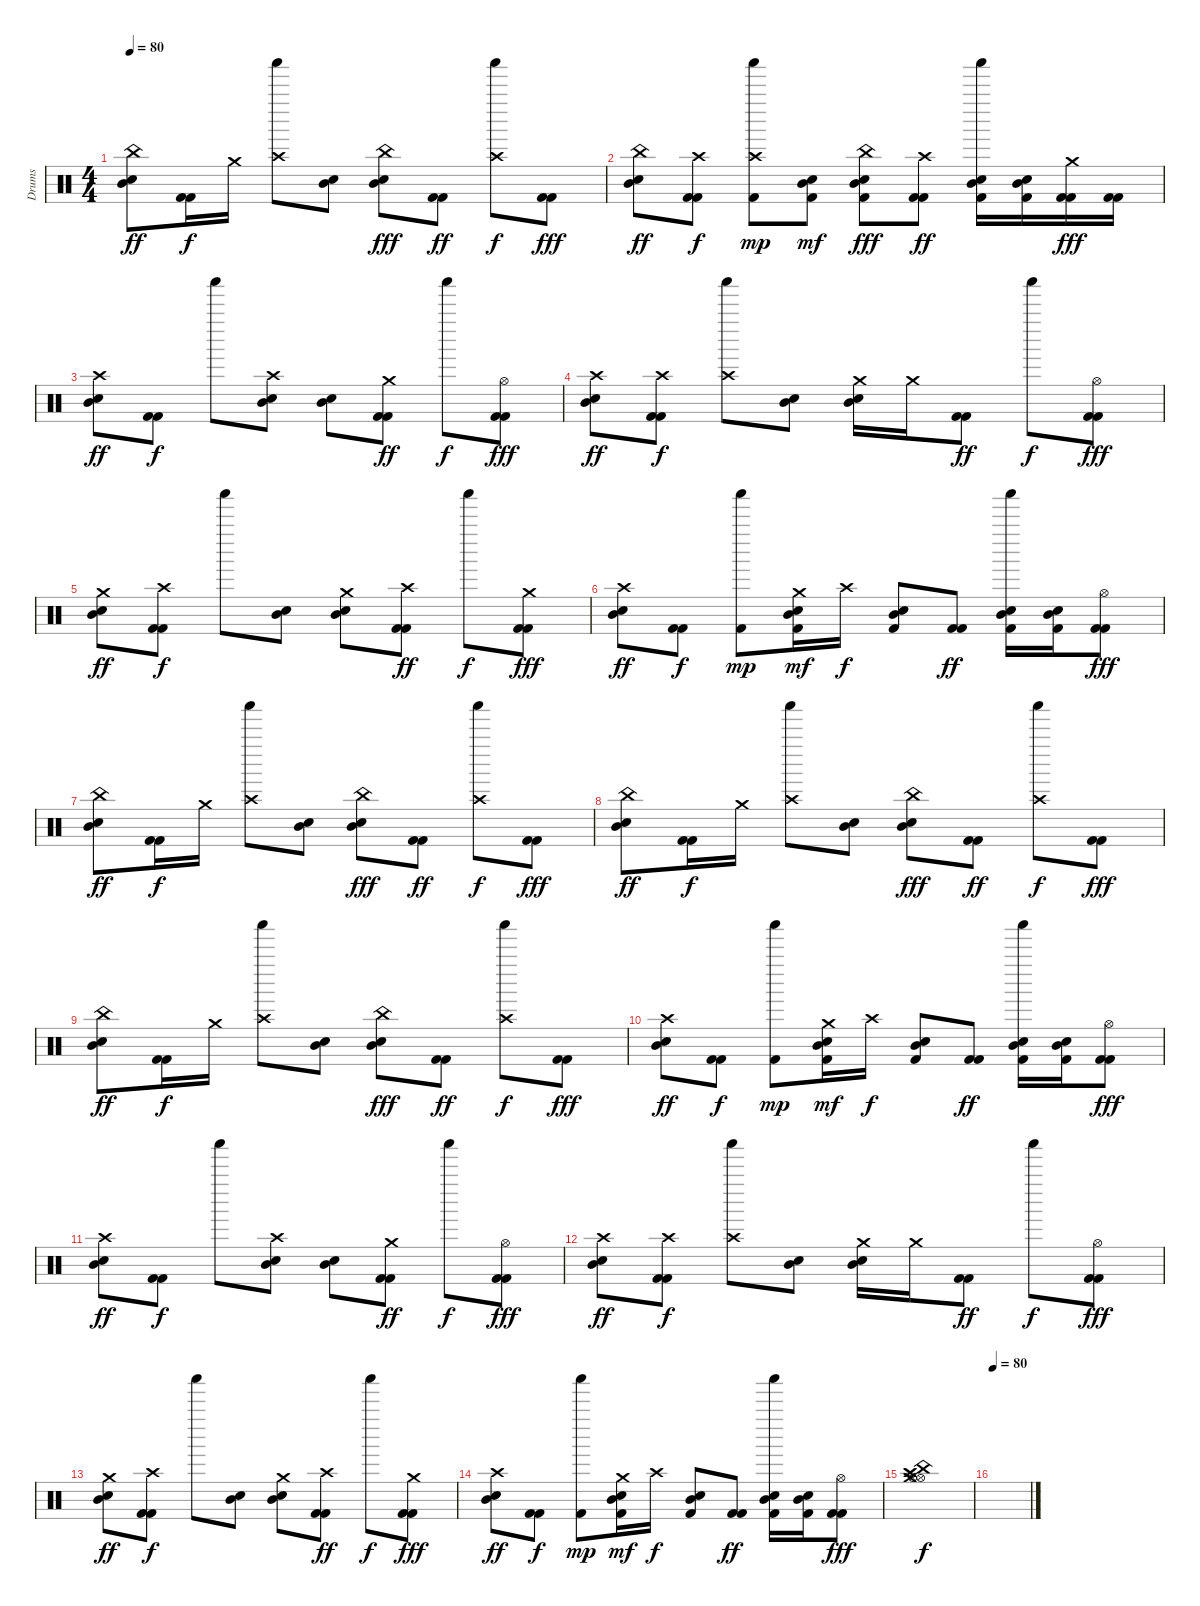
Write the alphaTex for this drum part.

\track ("Drums" "Drums") {instrument percussion}
\staff {score}
\articulation defaults
\ts (4 4)
\tempo 80
\clef neutral
\ks c
("China (hit)" "Mid Tom (hit)" "Electric Snare (hit)").8{bd 60 dy ff} ("Kick (hit) 2" "Kick (hit) 2").16{dy f} "Crash medium (hit)".16 ("Shaker (hit)" "Crash high (hit)").8 ("Mid Tom (hit)" "Electric Snare (hit)").8 ("China (hit)" "Mid Tom (hit)" "Electric Snare (hit)").8{dy fff} ("Kick (hit) 2" "Kick (hit) 2").8{dy ff} ("Shaker (hit)" "Crash high (hit)").8{dy f} ("Kick (hit) 2" "Kick (hit) 2").8{dy fff} |
("China (hit)" "Mid Tom (hit)" "Electric Snare (hit)").8{bd 60 dy ff} ("Crash high (hit)" "Kick (hit) 2" "Kick (hit) 2").8{dy f} ("Shaker (hit)" "Crash high (hit)" "Kick (hit) 2").8{dy mp} ("Mid Tom (hit)" "Electric Snare (hit)" "Kick (hit) 2").8{dy mf} ("China (hit)" "Mid Tom (hit)" "Electric Snare (hit)" "Kick (hit) 2").8{dy fff} ("Crash high (hit)" "Kick (hit) 2" "Kick (hit) 2").8{dy ff} ("Shaker (hit)" "Mid Tom (hit)" "Electric Snare (hit)" "Kick (hit) 2").16 ("Mid Tom (hit)" "Electric Snare (hit)" "Kick (hit) 2").16 ("Crash medium (hit)" "Kick (hit) 2" "Kick (hit) 2").16{dy fff} ("Kick (hit) 2" "Kick (hit) 2").16 |
("Crash high (hit)" "Mid Tom (hit)" "Electric Snare (hit)").8{dy ff} ("Kick (hit) 2" "Kick (hit) 2").8{dy f} "Shaker (hit)".8 ("Crash high (hit)" "Mid Tom (hit)" "Electric Snare (hit)").8 ("Mid Tom (hit)" "Electric Snare (hit)").8 ("Crash medium (hit)" "Kick (hit) 2" "Kick (hit) 2").8{dy ff} "Shaker (hit)".8{dy f} ("Hi-Hat (open)" "Kick (hit) 2" "Kick (hit) 2").8{dy fff} |
("Crash high (hit)" "Mid Tom (hit)" "Electric Snare (hit)").8{bd 60 dy ff} ("Crash high (hit)" "Kick (hit) 2" "Kick (hit) 2").8{dy f} ("Shaker (hit)" "Crash high (hit)").8 ("Mid Tom (hit)" "Electric Snare (hit)").8 ("Crash medium (hit)" "Mid Tom (hit)" "Electric Snare (hit)").16 "Crash medium (hit)".16 ("Kick (hit) 2" "Kick (hit) 2").8{dy ff} "Shaker (hit)".8{dy f} ("Hi-Hat (open)" "Kick (hit) 2" "Kick (hit) 2").8{dy fff} |
("Crash medium (hit)" "Mid Tom (hit)" "Electric Snare (hit)").8{bd 60 dy ff} ("Crash high (hit)" "Kick (hit) 2" "Kick (hit) 2").8{dy f} "Shaker (hit)".8 ("Mid Tom (hit)" "Electric Snare (hit)").8 ("Crash medium (hit)" "Mid Tom (hit)" "Electric Snare (hit)").8 ("Crash high (hit)" "Kick (hit) 2" "Kick (hit) 2").8{dy ff} "Shaker (hit)".8{dy f} ("Crash medium (hit)" "Kick (hit) 2" "Kick (hit) 2").8{dy fff} |
("Crash high (hit)" "Mid Tom (hit)" "Electric Snare (hit)").8{bd 60 dy ff} ("Kick (hit) 2" "Kick (hit) 2").8{dy f} ("Shaker (hit)" "Kick (hit) 2").8{dy mp} ("Crash medium (hit)" "Mid Tom (hit)" "Electric Snare (hit)" "Kick (hit) 2").16{dy mf} "Crash high (hit)".16{dy f} ("Mid Tom (hit)" "Electric Snare (hit)" "Kick (hit) 2").8 ("Kick (hit) 2" "Kick (hit) 2").8{dy ff} ("Shaker (hit)" "Mid Tom (hit)" "Electric Snare (hit)" "Kick (hit) 2").16 ("Mid Tom (hit)" "Electric Snare (hit)" "Kick (hit) 2").16 ("Hi-Hat (open)" "Kick (hit) 2" "Kick (hit) 2").8{dy fff} |
("China (hit)" "Mid Tom (hit)" "Electric Snare (hit)").8{dy ff} ("Kick (hit) 2" "Kick (hit) 2").16{dy f} "Crash medium (hit)".16 ("Shaker (hit)" "Crash high (hit)").8 ("Mid Tom (hit)" "Electric Snare (hit)").8 ("China (hit)" "Mid Tom (hit)" "Electric Snare (hit)").8{dy fff} ("Kick (hit) 2" "Kick (hit) 2").8{dy ff} ("Shaker (hit)" "Crash high (hit)").8{dy f} ("Kick (hit) 2" "Kick (hit) 2").8{dy fff} |
("China (hit)" "Mid Tom (hit)" "Electric Snare (hit)").8{bd 60 dy ff} ("Kick (hit) 2" "Kick (hit) 2").16{dy f} "Crash medium (hit)".16 ("Shaker (hit)" "Crash high (hit)").8 ("Mid Tom (hit)" "Electric Snare (hit)").8 ("China (hit)" "Mid Tom (hit)" "Electric Snare (hit)").8{dy fff} ("Kick (hit) 2" "Kick (hit) 2").8{dy ff} ("Shaker (hit)" "Crash high (hit)").8{dy f} ("Kick (hit) 2" "Kick (hit) 2").8{dy fff} |
("China (hit)" "Mid Tom (hit)" "Electric Snare (hit)").8{bd 60 dy ff} ("Kick (hit) 2" "Kick (hit) 2").16{dy f} "Crash medium (hit)".16 ("Shaker (hit)" "Crash high (hit)").8 ("Mid Tom (hit)" "Electric Snare (hit)").8 ("China (hit)" "Mid Tom (hit)" "Electric Snare (hit)").8{dy fff} ("Kick (hit) 2" "Kick (hit) 2").8{dy ff} ("Shaker (hit)" "Crash high (hit)").8{dy f} ("Kick (hit) 2" "Kick (hit) 2").8{dy fff} |
("Crash high (hit)" "Mid Tom (hit)" "Electric Snare (hit)").8{bd 60 dy ff} ("Kick (hit) 2" "Kick (hit) 2").8{dy f} ("Shaker (hit)" "Kick (hit) 2").8{dy mp} ("Crash medium (hit)" "Mid Tom (hit)" "Electric Snare (hit)" "Kick (hit) 2").16{dy mf} "Crash high (hit)".16{dy f} ("Mid Tom (hit)" "Electric Snare (hit)" "Kick (hit) 2").8 ("Kick (hit) 2" "Kick (hit) 2").8{dy ff} ("Shaker (hit)" "Mid Tom (hit)" "Electric Snare (hit)" "Kick (hit) 2").16 ("Mid Tom (hit)" "Electric Snare (hit)" "Kick (hit) 2").16 ("Hi-Hat (open)" "Kick (hit) 2" "Kick (hit) 2").8{dy fff} |
("Crash high (hit)" "Mid Tom (hit)" "Electric Snare (hit)").8{dy ff} ("Kick (hit) 2" "Kick (hit) 2").8{dy f} "Shaker (hit)".8 ("Crash high (hit)" "Mid Tom (hit)" "Electric Snare (hit)").8 ("Mid Tom (hit)" "Electric Snare (hit)").8 ("Crash medium (hit)" "Kick (hit) 2" "Kick (hit) 2").8{dy ff} "Shaker (hit)".8{dy f} ("Hi-Hat (open)" "Kick (hit) 2" "Kick (hit) 2").8{dy fff} |
("Crash high (hit)" "Mid Tom (hit)" "Electric Snare (hit)").8{bd 60 dy ff} ("Crash high (hit)" "Kick (hit) 2" "Kick (hit) 2").8{dy f} ("Shaker (hit)" "Crash high (hit)").8 ("Mid Tom (hit)" "Electric Snare (hit)").8 ("Crash medium (hit)" "Mid Tom (hit)" "Electric Snare (hit)").16 "Crash medium (hit)".16 ("Kick (hit) 2" "Kick (hit) 2").8{dy ff} "Shaker (hit)".8{dy f} ("Hi-Hat (open)" "Kick (hit) 2" "Kick (hit) 2").8{dy fff} |
("Crash medium (hit)" "Mid Tom (hit)" "Electric Snare (hit)").8{bd 60 dy ff} ("Crash high (hit)" "Kick (hit) 2" "Kick (hit) 2").8{dy f} "Shaker (hit)".8 ("Mid Tom (hit)" "Electric Snare (hit)").8 ("Crash medium (hit)" "Mid Tom (hit)" "Electric Snare (hit)").8 ("Crash high (hit)" "Kick (hit) 2" "Kick (hit) 2").8{dy ff} "Shaker (hit)".8{dy f} ("Crash medium (hit)" "Kick (hit) 2" "Kick (hit) 2").8{dy fff} |
("Crash high (hit)" "Mid Tom (hit)" "Electric Snare (hit)").8{bd 60 dy ff} ("Kick (hit) 2" "Kick (hit) 2").8{dy f} ("Shaker (hit)" "Kick (hit) 2").8{dy mp} ("Crash medium (hit)" "Mid Tom (hit)" "Electric Snare (hit)" "Kick (hit) 2").16{dy mf} "Crash high (hit)".16{dy f} ("Mid Tom (hit)" "Electric Snare (hit)" "Kick (hit) 2").8 ("Kick (hit) 2" "Kick (hit) 2").8{dy ff} ("Shaker (hit)" "Mid Tom (hit)" "Electric Snare (hit)" "Kick (hit) 2").16 ("Mid Tom (hit)" "Electric Snare (hit)" "Kick (hit) 2").16 ("Hi-Hat (open)" "Kick (hit) 2" "Kick (hit) 2").8{dy fff} |
("Crash high (hit)" "China (hit)" "Hi-Hat (open)" "Hi-Hat (open)" "Crash medium (hit)").1{dy f} |
\tempo 80
